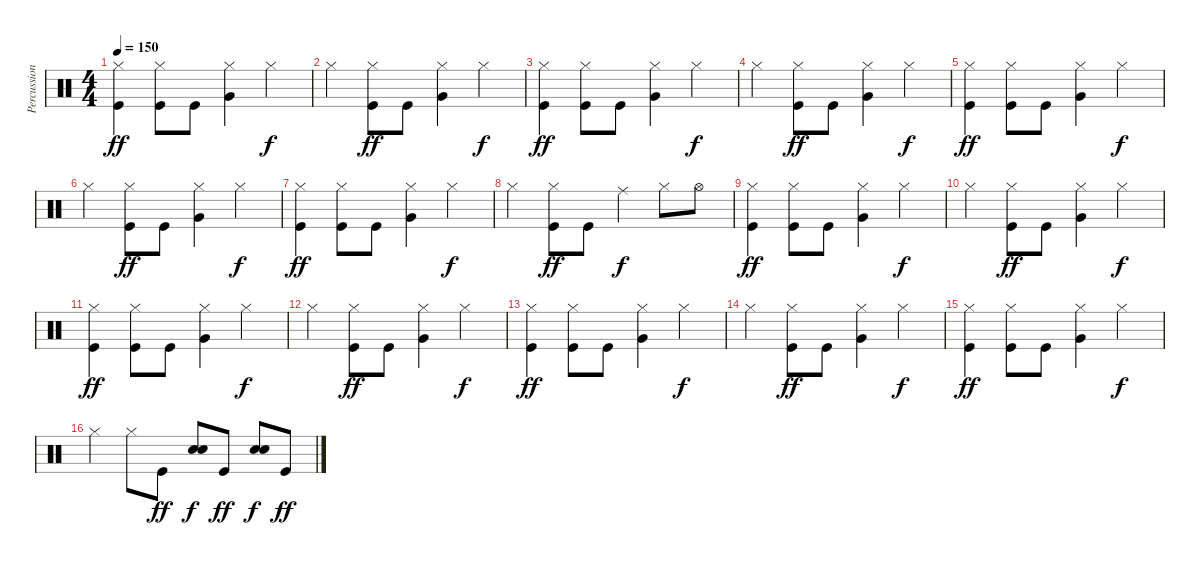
\track ("Percussion" "Percussion") {instrument percussion}
\staff {score}
\articulation defaults
\ts (4 4)
\tempo 150
\clef neutral
\ks c
("Hi-Hat (closed)" "Kick (hit)").4{dy ff} ("Hi-Hat (closed)" "Kick (hit)").8 "Kick (hit)".8 ("Hi-Hat (closed)" "Very Low Tom (hit)").4 "Hi-Hat (closed)".4{dy f} |
"Hi-Hat (closed)".4 ("Hi-Hat (closed)" "Kick (hit)").8{dy ff} "Kick (hit)".8 ("Hi-Hat (closed)" "Very Low Tom (hit)").4 "Hi-Hat (closed)".4{dy f} |
("Hi-Hat (closed)" "Kick (hit)").4{dy ff} ("Hi-Hat (closed)" "Kick (hit)").8 "Kick (hit)".8 ("Hi-Hat (closed)" "Very Low Tom (hit)").4 "Hi-Hat (closed)".4{dy f} |
"Hi-Hat (closed)".4 ("Hi-Hat (closed)" "Kick (hit)").8{dy ff} "Kick (hit)".8 ("Hi-Hat (closed)" "Very Low Tom (hit)").4 "Hi-Hat (closed)".4{dy f} |
("Hi-Hat (closed)" "Kick (hit)").4{dy ff} ("Hi-Hat (closed)" "Kick (hit)").8 "Kick (hit)".8 ("Hi-Hat (closed)" "Very Low Tom (hit)").4 "Hi-Hat (closed)".4{dy f} |
"Hi-Hat (closed)".4 ("Hi-Hat (closed)" "Kick (hit)").8{dy ff} "Kick (hit)".8 ("Hi-Hat (closed)" "Very Low Tom (hit)").4 "Hi-Hat (closed)".4{dy f} |
("Hi-Hat (closed)" "Kick (hit)").4{dy ff} ("Hi-Hat (closed)" "Kick (hit)").8 "Kick (hit)".8 ("Hi-Hat (closed)" "Very Low Tom (hit)").4 "Hi-Hat (closed)".4{dy f} |
"Hi-Hat (closed)".4 ("Hi-Hat (closed)" "Kick (hit)").8{dy ff} "Kick (hit)".8 "Ride (middle)".4{dy f} "Hi-Hat (closed)".8 "Hi-Hat (open)".8 |
("Hi-Hat (closed)" "Kick (hit)").4{dy ff} ("Hi-Hat (closed)" "Kick (hit)").8 "Kick (hit)".8 ("Hi-Hat (closed)" "Very Low Tom (hit)").4 "Hi-Hat (closed)".4{dy f} |
"Hi-Hat (closed)".4 ("Hi-Hat (closed)" "Kick (hit)").8{dy ff} "Kick (hit)".8 ("Hi-Hat (closed)" "Very Low Tom (hit)").4 "Hi-Hat (closed)".4{dy f} |
("Hi-Hat (closed)" "Kick (hit)").4{dy ff} ("Hi-Hat (closed)" "Kick (hit)").8 "Kick (hit)".8 ("Hi-Hat (closed)" "Very Low Tom (hit)").4 "Hi-Hat (closed)".4{dy f} |
"Hi-Hat (closed)".4 ("Hi-Hat (closed)" "Kick (hit)").8{dy ff} "Kick (hit)".8 ("Hi-Hat (closed)" "Very Low Tom (hit)").4 "Hi-Hat (closed)".4{dy f} |
("Hi-Hat (closed)" "Kick (hit)").4{dy ff} ("Hi-Hat (closed)" "Kick (hit)").8 "Kick (hit)".8 ("Hi-Hat (closed)" "Very Low Tom (hit)").4 "Hi-Hat (closed)".4{dy f} |
"Hi-Hat (closed)".4 ("Hi-Hat (closed)" "Kick (hit)").8{dy ff} "Kick (hit)".8 ("Hi-Hat (closed)" "Very Low Tom (hit)").4 "Hi-Hat (closed)".4{dy f} |
("Hi-Hat (closed)" "Kick (hit)").4{dy ff} ("Hi-Hat (closed)" "Kick (hit)").8 "Kick (hit)".8 ("Hi-Hat (closed)" "Very Low Tom (hit)").4 "Hi-Hat (closed)".4{dy f} |
"Hi-Hat (closed)".4 "Hi-Hat (closed)".8 "Kick (hit)".8{dy ff} ("Snare (hit) 2" "Snare (hit) 2").8{dy f} "Kick (hit)".8{dy ff} ("Snare (hit) 2" "Snare (hit) 2").8{dy f} "Kick (hit)".8{dy ff}
